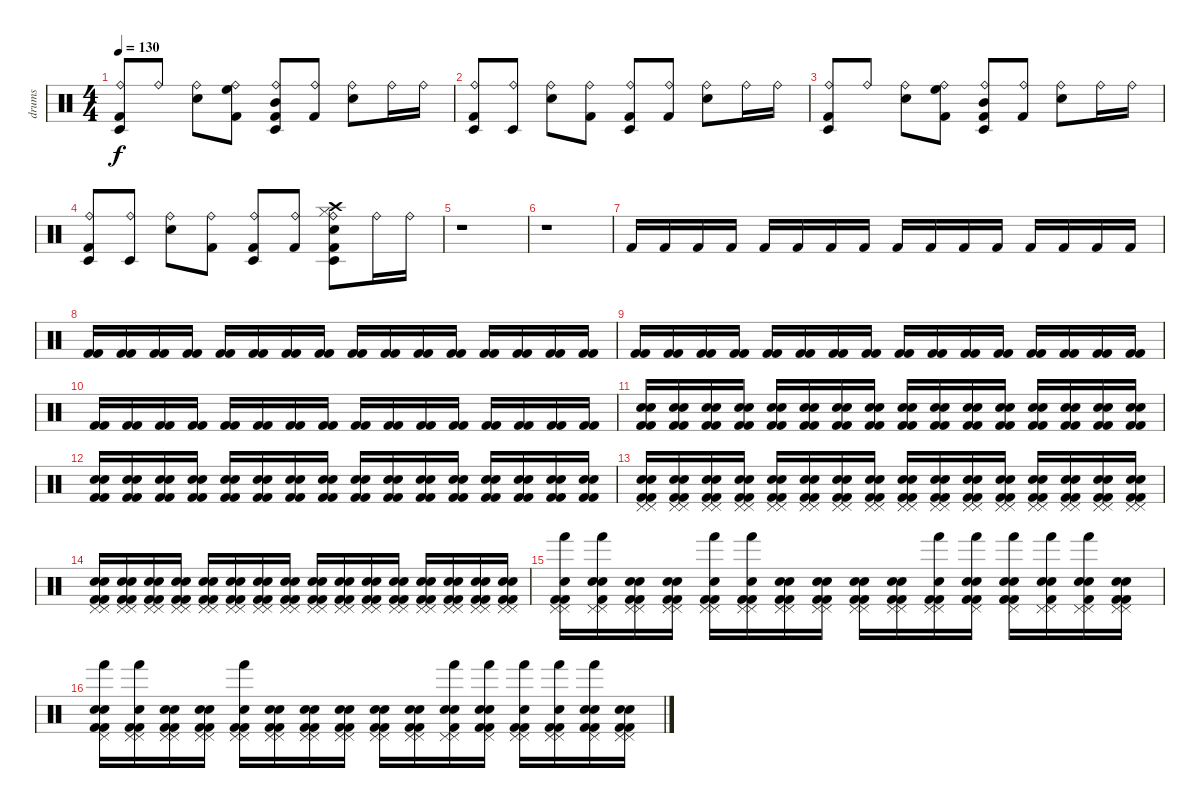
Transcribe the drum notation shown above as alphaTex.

\track ("drums" "drums") {instrument percussion}
\staff {score}
\articulation defaults
\ts (4 4)
\tempo 130
\clef neutral
\ks c
("Timbale low (hit)" "Ride (bell)" "Kick (hit) 2").8{dy f} "Ride (bell)".8 ("Ride (bell)" "Electric Snare (hit)").8 ("High Floor Tom (hit)" "Ride (bell)" "Kick (hit) 2").8 ("Timbale low (hit)" "Mid Tom (hit)" "Ride (bell)" "Kick (hit) 2").8 ("Kick (hit) 2" "Ride (bell)").8 ("Ride (bell)" "Electric Snare (hit)").8 "Ride (bell)".16 "Ride (bell)".16 |
("Timbale low (hit)" "Ride (bell)" "Kick (hit) 2").8 ("Timbale low (hit)" "Ride (bell)").8 ("Ride (bell)" "Electric Snare (hit)").8 ("Ride (bell)" "Kick (hit) 2").8 ("Timbale low (hit)" "Ride (bell)" "Kick (hit) 2").8 ("Ride (bell)" "Kick (hit) 2").8 ("Ride (bell)" "Electric Snare (hit)").8 "Ride (bell)".16 "Ride (bell)".16 |
("Timbale low (hit)" "Ride (bell)" "Kick (hit) 2").8 "Ride (bell)".8 ("Ride (bell)" "Electric Snare (hit)").8 ("High Floor Tom (hit)" "Ride (bell)" "Kick (hit) 2").8 ("Timbale low (hit)" "Mid Tom (hit)" "Ride (bell)" "Kick (hit) 2").8 ("Kick (hit) 2" "Ride (bell)").8 ("Ride (bell)" "Electric Snare (hit)").8 "Ride (bell)".16 "Ride (bell)".16 |
("Timbale low (hit)" "Kick (hit) 2" "Ride (bell)").8 ("Timbale low (hit)" "Ride (bell)").8 ("Electric Snare (hit)" "Ride (bell)").8 ("Kick (hit) 2" "Ride (bell)").8 ("Kick (hit) 2" "Ride (bell)" "Timbale low (hit)").8 ("Kick (hit) 2" "Ride (bell)").8 ("Kick (hit) 2" "Hi-Hat (closed)" "Timbale low (hit)" "Crash high (hit)" "Electric Snare (hit)" "Ride (bell)").8 "Ride (bell)".16 "Ride (bell)".16 |
r.1 |
r.1 |
"Kick (hit) 2".16 "Kick (hit) 2".16 "Kick (hit) 2".16 "Kick (hit) 2".16 "Kick (hit) 2".16 "Kick (hit) 2".16 "Kick (hit) 2".16 "Kick (hit) 2".16 "Kick (hit) 2".16 "Kick (hit) 2".16 "Kick (hit) 2".16 "Kick (hit) 2".16 "Kick (hit) 2".16 "Kick (hit) 2".16 "Kick (hit) 2".16 "Kick (hit) 2".16 |
("Kick (hit) 2" "Kick (hit) 2").16 ("Kick (hit) 2" "Kick (hit) 2").16 ("Kick (hit) 2" "Kick (hit) 2").16 ("Kick (hit) 2" "Kick (hit) 2").16 ("Kick (hit) 2" "Kick (hit) 2").16 ("Kick (hit) 2" "Kick (hit) 2").16 ("Kick (hit) 2" "Kick (hit) 2").16 ("Kick (hit) 2" "Kick (hit) 2").16 ("Kick (hit) 2" "Kick (hit) 2").16 ("Kick (hit) 2" "Kick (hit) 2").16 ("Kick (hit) 2" "Kick (hit) 2").16 ("Kick (hit) 2" "Kick (hit) 2").16 ("Kick (hit) 2" "Kick (hit) 2").16 ("Kick (hit) 2" "Kick (hit) 2").16 ("Kick (hit) 2" "Kick (hit) 2").16 ("Kick (hit) 2" "Kick (hit) 2").16 |
("Kick (hit) 2" "Kick (hit) 2").16 ("Kick (hit) 2" "Kick (hit) 2").16 ("Kick (hit) 2" "Kick (hit) 2").16 ("Kick (hit) 2" "Kick (hit) 2").16 ("Kick (hit) 2" "Kick (hit) 2").16 ("Kick (hit) 2" "Kick (hit) 2").16 ("Kick (hit) 2" "Kick (hit) 2").16 ("Kick (hit) 2" "Kick (hit) 2").16 ("Kick (hit) 2" "Kick (hit) 2").16 ("Kick (hit) 2" "Kick (hit) 2").16 ("Kick (hit) 2" "Kick (hit) 2").16 ("Kick (hit) 2" "Kick (hit) 2").16 ("Kick (hit) 2" "Kick (hit) 2").16 ("Kick (hit) 2" "Kick (hit) 2").16 ("Kick (hit) 2" "Kick (hit) 2").16 ("Kick (hit) 2" "Kick (hit) 2").16 |
("Kick (hit) 2" "Kick (hit) 2").16 ("Kick (hit) 2" "Kick (hit) 2").16 ("Kick (hit) 2" "Kick (hit) 2").16 ("Kick (hit) 2" "Kick (hit) 2").16 ("Kick (hit) 2" "Kick (hit) 2").16 ("Kick (hit) 2" "Kick (hit) 2").16 ("Kick (hit) 2" "Kick (hit) 2").16 ("Kick (hit) 2" "Kick (hit) 2").16 ("Kick (hit) 2" "Kick (hit) 2").16 ("Kick (hit) 2" "Kick (hit) 2").16 ("Kick (hit) 2" "Kick (hit) 2").16 ("Kick (hit) 2" "Kick (hit) 2").16 ("Kick (hit) 2" "Kick (hit) 2").16 ("Kick (hit) 2" "Kick (hit) 2").16 ("Kick (hit) 2" "Kick (hit) 2").16 ("Kick (hit) 2" "Kick (hit) 2").16 |
("Kick (hit) 2" "Kick (hit) 2" "Hand Clap (hit)" "Hand Clap (hit)").16 ("Kick (hit) 2" "Kick (hit) 2" "Hand Clap (hit)" "Hand Clap (hit)").16 ("Kick (hit) 2" "Kick (hit) 2" "Hand Clap (hit)" "Hand Clap (hit)").16 ("Kick (hit) 2" "Kick (hit) 2" "Hand Clap (hit)" "Hand Clap (hit)").16 ("Hand Clap (hit)" "Kick (hit) 2" "Kick (hit) 2" "Hand Clap (hit)").16 ("Kick (hit) 2" "Hand Clap (hit)" "Kick (hit) 2" "Hand Clap (hit)").16 ("Kick (hit) 2" "Hand Clap (hit)" "Kick (hit) 2" "Hand Clap (hit)").16 ("Kick (hit) 2" "Hand Clap (hit)" "Kick (hit) 2" "Hand Clap (hit)").16 ("Hand Clap (hit)" "Kick (hit) 2" "Hand Clap (hit)" "Kick (hit) 2").16 ("Kick (hit) 2" "Kick (hit) 2" "Hand Clap (hit)" "Hand Clap (hit)").16 ("Kick (hit) 2" "Kick (hit) 2" "Hand Clap (hit)" "Hand Clap (hit)").16 ("Kick (hit) 2" "Kick (hit) 2" "Hand Clap (hit)" "Hand Clap (hit)").16 ("Kick (hit) 2" "Hand Clap (hit)" "Hand Clap (hit)" "Kick (hit) 2").16 ("Kick (hit) 2" "Kick (hit) 2" "Hand Clap (hit)" "Hand Clap (hit)").16 ("Kick (hit) 2" "Kick (hit) 2" "Hand Clap (hit)" "Hand Clap (hit)").16 ("Kick (hit) 2" "Kick (hit) 2" "Hand Clap (hit)" "Hand Clap (hit)").16 |
("Kick (hit) 2" "Kick (hit) 2" "Hand Clap (hit)" "Hand Clap (hit)").16 ("Kick (hit) 2" "Hand Clap (hit)" "Hand Clap (hit)" "Kick (hit) 2").16 ("Kick (hit) 2" "Kick (hit) 2" "Hand Clap (hit)" "Hand Clap (hit)").16 ("Kick (hit) 2" "Kick (hit) 2" "Hand Clap (hit)" "Hand Clap (hit)").16 ("Kick (hit) 2" "Kick (hit) 2" "Hand Clap (hit)" "Hand Clap (hit)").16 ("Kick (hit) 2" "Hand Clap (hit)" "Hand Clap (hit)" "Kick (hit) 2").16 ("Kick (hit) 2" "Kick (hit) 2" "Hand Clap (hit)" "Hand Clap (hit)").16 ("Kick (hit) 2" "Kick (hit) 2" "Hand Clap (hit)" "Hand Clap (hit)").16 ("Kick (hit) 2" "Kick (hit) 2" "Hand Clap (hit)" "Hand Clap (hit)").16 ("Kick (hit) 2" "Hand Clap (hit)" "Hand Clap (hit)" "Kick (hit) 2").16 ("Hand Clap (hit)" "Hand Clap (hit)" "Kick (hit) 2" "Kick (hit) 2").16 ("Kick (hit) 2" "Hand Clap (hit)" "Hand Clap (hit)" "Kick (hit) 2").16 ("Kick (hit) 2" "Hand Clap (hit)" "Hand Clap (hit)" "Kick (hit) 2").16 ("Kick (hit) 2" "Hand Clap (hit)" "Hand Clap (hit)" "Kick (hit) 2").16 ("Hand Clap (hit)" "Hand Clap (hit)" "Kick (hit) 2" "Kick (hit) 2").16 ("Kick (hit) 2" "Hand Clap (hit)" "Hand Clap (hit)" "Kick (hit) 2").16 |
("Pedal Hi-Hat (hit)" "Hand Clap (hit)" "Hand Clap (hit)" "Kick (hit) 2" "Kick (hit) 2" "Pedal Hi-Hat (hit)").16 ("Pedal Hi-Hat (hit)" "Kick (hit) 2" "Hand Clap (hit)" "Kick (hit) 2" "Hand Clap (hit)" "Pedal Hi-Hat (hit)").16 ("Pedal Hi-Hat (hit)" "Kick (hit) 2" "Pedal Hi-Hat (hit)" "Hand Clap (hit)" "Hand Clap (hit)" "Kick (hit) 2").16 ("Pedal Hi-Hat (hit)" "Hand Clap (hit)" "Hand Clap (hit)" "Kick (hit) 2" "Kick (hit) 2" "Pedal Hi-Hat (hit)").16 ("Pedal Hi-Hat (hit)" "Kick (hit) 2" "Hand Clap (hit)" "Kick (hit) 2" "Hand Clap (hit)" "Pedal Hi-Hat (hit)").16 ("Pedal Hi-Hat (hit)" "Pedal Hi-Hat (hit)" "Kick (hit) 2" "Hand Clap (hit)" "Hand Clap (hit)" "Kick (hit) 2").16 ("Kick (hit) 2" "Hand Clap (hit)" "Hand Clap (hit)" "Kick (hit) 2" "Pedal Hi-Hat (hit)" "Pedal Hi-Hat (hit)").16 ("Hand Clap (hit)" "Pedal Hi-Hat (hit)" "Pedal Hi-Hat (hit)" "Kick (hit) 2" "Hand Clap (hit)" "Kick (hit) 2").16 ("Pedal Hi-Hat (hit)" "Pedal Hi-Hat (hit)" "Kick (hit) 2" "Kick (hit) 2" "Hand Clap (hit)" "Hand Clap (hit)").16 ("Kick (hit) 2" "Kick (hit) 2" "Pedal Hi-Hat (hit)" "Pedal Hi-Hat (hit)" "Hand Clap (hit)" "Hand Clap (hit)").16 ("Kick (hit) 2" "Hand Clap (hit)" "Hand Clap (hit)" "Kick (hit) 2" "Pedal Hi-Hat (hit)" "Pedal Hi-Hat (hit)").16 ("Pedal Hi-Hat (hit)" "Hand Clap (hit)" "Kick (hit) 2" "Kick (hit) 2" "Hand Clap (hit)" "Pedal Hi-Hat (hit)").16 ("Kick (hit) 2" "Kick (hit) 2" "Hand Clap (hit)" "Hand Clap (hit)" "Pedal Hi-Hat (hit)" "Pedal Hi-Hat (hit)").16 ("Kick (hit) 2" "Hand Clap (hit)" "Pedal Hi-Hat (hit)" "Pedal Hi-Hat (hit)" "Kick (hit) 2" "Hand Clap (hit)").16 ("Pedal Hi-Hat (hit)" "Hand Clap (hit)" "Kick (hit) 2" "Kick (hit) 2" "Hand Clap (hit)" "Pedal Hi-Hat (hit)").16 ("Kick (hit) 2" "Kick (hit) 2" "Hand Clap (hit)" "Hand Clap (hit)" "Pedal Hi-Hat (hit)" "Pedal Hi-Hat (hit)").16 |
("Pedal Hi-Hat (hit)" "Kick (hit) 2" "Hand Clap (hit)" "Pedal Hi-Hat (hit)" "Kick (hit) 2" "Hand Clap (hit)").16 ("Hand Clap (hit)" "Hand Clap (hit)" "Kick (hit) 2" "Kick (hit) 2" "Pedal Hi-Hat (hit)" "Pedal Hi-Hat (hit)").16 ("Kick (hit) 2" "Kick (hit) 2" "Hand Clap (hit)" "Hand Clap (hit)" "Pedal Hi-Hat (hit)" "Pedal Hi-Hat (hit)").16 ("Hand Clap (hit)" "Pedal Hi-Hat (hit)" "Pedal Hi-Hat (hit)" "Hand Clap (hit)" "Kick (hit) 2" "Kick (hit) 2").16 ("Pedal Hi-Hat (hit)" "Kick (hit) 2" "Kick (hit) 2" "Hand Clap (hit)" "Pedal Hi-Hat (hit)" "Hand Clap (hit)").16 ("Kick (hit) 2" "Pedal Hi-Hat (hit)" "Kick (hit) 2" "Hand Clap (hit)" "Hand Clap (hit)" "Pedal Hi-Hat (hit)").16 ("Kick (hit) 2" "Hand Clap (hit)" "Kick (hit) 2" "Pedal Hi-Hat (hit)" "Hand Clap (hit)" "Pedal Hi-Hat (hit)").16 ("Hand Clap (hit)" "Kick (hit) 2" "Kick (hit) 2" "Pedal Hi-Hat (hit)" "Pedal Hi-Hat (hit)" "Hand Clap (hit)").16 ("Kick (hit) 2" "Kick (hit) 2" "Hand Clap (hit)" "Pedal Hi-Hat (hit)" "Pedal Hi-Hat (hit)" "Hand Clap (hit)").16 ("Hand Clap (hit)" "Pedal Hi-Hat (hit)" "Pedal Hi-Hat (hit)" "Kick (hit) 2" "Hand Clap (hit)" "Kick (hit) 2").16 ("Hand Clap (hit)" "Kick (hit) 2" "Kick (hit) 2" "Pedal Hi-Hat (hit)" "Pedal Hi-Hat (hit)" "Hand Clap (hit)").16 ("Kick (hit) 2" "Kick (hit) 2" "Hand Clap (hit)" "Pedal Hi-Hat (hit)" "Pedal Hi-Hat (hit)" "Hand Clap (hit)").16 ("Kick (hit) 2" "Hand Clap (hit)" "Pedal Hi-Hat (hit)" "Kick (hit) 2" "Hand Clap (hit)" "Pedal Hi-Hat (hit)").16 ("Hand Clap (hit)" "Kick (hit) 2" "Hand Clap (hit)" "Pedal Hi-Hat (hit)" "Pedal Hi-Hat (hit)" "Kick (hit) 2").16 ("Kick (hit) 2" "Hand Clap (hit)" "Hand Clap (hit)" "Pedal Hi-Hat (hit)" "Kick (hit) 2" "Pedal Hi-Hat (hit)").16 ("Kick (hit) 2" "Pedal Hi-Hat (hit)" "Hand Clap (hit)" "Kick (hit) 2" "Hand Clap (hit)" "Pedal Hi-Hat (hit)").16 |
("Pedal Hi-Hat (hit)" "Pedal Hi-Hat (hit)" "Kick (hit) 2" "Hand Clap (hit)" "Hand (hit)" "Kick (hit) 2").16 ("Kick (hit) 2" "Hand Clap (hit)" "Hand (hit)" "Pedal Hi-Hat (hit)" "Pedal Hi-Hat (hit)" "Hand Clap (hit)").16 ("Pedal Hi-Hat (hit)" "Kick (hit) 2" "Hand Clap (hit)" "Pedal Hi-Hat (hit)" "Kick (hit) 2" "Hand Clap (hit)").16 ("Kick (hit) 2" "Pedal Hi-Hat (hit)" "Hand Clap (hit)" "Hand Clap (hit)" "Kick (hit) 2" "Pedal Hi-Hat (hit)").16 ("Kick (hit) 2" "Hand (hit)" "Pedal Hi-Hat (hit)" "Pedal Hi-Hat (hit)" "Hand Clap (hit)" "Kick (hit) 2").16 ("Hand Clap (hit)" "Pedal Hi-Hat (hit)" "Kick (hit) 2" "Kick (hit) 2" "Pedal Hi-Hat (hit)" "Hand (hit)").16 ("Hand Clap (hit)" "Pedal Hi-Hat (hit)" "Hand Clap (hit)" "Kick (hit) 2" "Pedal Hi-Hat (hit)" "Kick (hit) 2").16 ("Pedal Hi-Hat (hit)" "Kick (hit) 2" "Hand Clap (hit)" "Kick (hit) 2" "Hand Clap (hit)" "Pedal Hi-Hat (hit)").16 ("Pedal Hi-Hat (hit)" "Pedal Hi-Hat (hit)" "Kick (hit) 2" "Kick (hit) 2" "Hand Clap (hit)" "Hand Clap (hit)").16 ("Hand Clap (hit)" "Hand Clap (hit)" "Kick (hit) 2" "Pedal Hi-Hat (hit)" "Kick (hit) 2" "Pedal Hi-Hat (hit)").16 ("Hand Clap (hit)" "Hand (hit)" "Pedal Hi-Hat (hit)" "Kick (hit) 2" "Kick (hit) 2" "Pedal Hi-Hat (hit)").16 ("Hand Clap (hit)" "Hand Clap (hit)" "Kick (hit) 2" "Kick (hit) 2" "Hand (hit)" "Pedal Hi-Hat (hit)").16 ("Hand (hit)" "Pedal Hi-Hat (hit)" "Kick (hit) 2" "Hand Clap (hit)" "Hand Clap (hit)" "Kick (hit) 2").16 ("Kick (hit) 2" "Hand Clap (hit)" "Hand (hit)" "Hand Clap (hit)" "Pedal Hi-Hat (hit)" "Pedal Hi-Hat (hit)").16 ("Pedal Hi-Hat (hit)" "Kick (hit) 2" "Hand (hit)" "Pedal Hi-Hat (hit)" "Hand Clap (hit)" "Hand Clap (hit)").16 ("Pedal Hi-Hat (hit)" "Pedal Hi-Hat (hit)" "Kick (hit) 2" "Kick (hit) 2" "Hand Clap (hit)" "Hand Clap (hit)").16 |
("Kick (hit) 2" "Hand Clap (hit)" "Pedal Hi-Hat (hit)" "Hand Clap (hit)" "Kick (hit) 2" "Hand (hit)").16 ("Kick (hit) 2" "Pedal Hi-Hat (hit)" "Pedal Hi-Hat (hit)" "Hand (hit)" "Kick (hit) 2" "Hand Clap (hit)").16 ("Pedal Hi-Hat (hit)" "Kick (hit) 2" "Hand Clap (hit)" "Hand Clap (hit)" "Pedal Hi-Hat (hit)" "Kick (hit) 2").16 ("Kick (hit) 2" "Hand Clap (hit)" "Kick (hit) 2" "Hand Clap (hit)" "Pedal Hi-Hat (hit)" "Pedal Hi-Hat (hit)").16 ("Pedal Hi-Hat (hit)" "Pedal Hi-Hat (hit)" "Kick (hit) 2" "Kick (hit) 2" "Hand (hit)" "Hand Clap (hit)").16 ("Hand Clap (hit)" "Hand Clap (hit)" "Pedal Hi-Hat (hit)" "Pedal Hi-Hat (hit)" "Kick (hit) 2" "Kick (hit) 2").16 ("Kick (hit) 2" "Kick (hit) 2" "Pedal Hi-Hat (hit)" "Hand Clap (hit)" "Pedal Hi-Hat (hit)" "Hand Clap (hit)").16 ("Pedal Hi-Hat (hit)" "Pedal Hi-Hat (hit)" "Hand Clap (hit)" "Kick (hit) 2" "Kick (hit) 2" "Hand Clap (hit)").16 ("Kick (hit) 2" "Hand Clap (hit)" "Hand Clap (hit)" "Pedal Hi-Hat (hit)" "Kick (hit) 2" "Pedal Hi-Hat (hit)").16 ("Pedal Hi-Hat (hit)" "Pedal Hi-Hat (hit)" "Kick (hit) 2" "Hand Clap (hit)" "Kick (hit) 2" "Hand Clap (hit)").16 ("Pedal Hi-Hat (hit)" "Hand (hit)" "Hand Clap (hit)" "Pedal Hi-Hat (hit)" "Kick (hit) 2" "Hand Clap (hit)").16 ("Hand Clap (hit)" "Pedal Hi-Hat (hit)" "Hand Clap (hit)" "Kick (hit) 2" "Hand (hit)" "Kick (hit) 2").16 ("Pedal Hi-Hat (hit)" "Kick (hit) 2" "Hand (hit)" "Pedal Hi-Hat (hit)" "Kick (hit) 2" "Hand Clap (hit)").16 ("Pedal Hi-Hat (hit)" "Kick (hit) 2" "Kick (hit) 2" "Hand (hit)" "Hand Clap (hit)" "Pedal Hi-Hat (hit)").16 ("Hand Clap (hit)" "Hand (hit)" "Hand Clap (hit)" "Kick (hit) 2" "Kick (hit) 2" "Pedal Hi-Hat (hit)").16 ("Pedal Hi-Hat (hit)" "Pedal Hi-Hat (hit)" "Hand Clap (hit)" "Kick (hit) 2" "Hand Clap (hit)" "Kick (hit) 2").16
